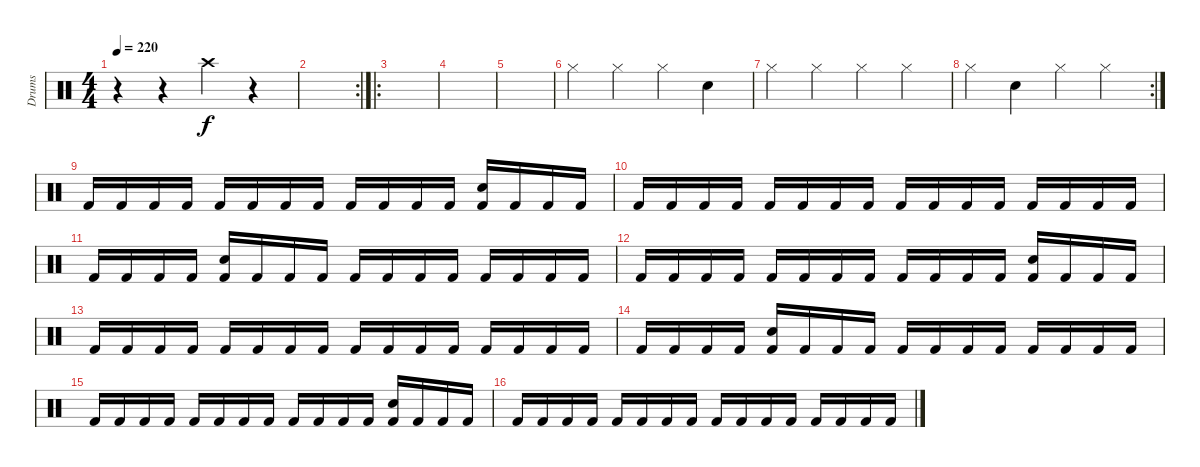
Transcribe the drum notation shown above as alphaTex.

\track ("Drums" "Drums") {instrument percussion}
\staff {score}
\articulation defaults
\ts (4 4)
\tempo 220
\clef neutral
\ks c
r.4{dy f} r.4 "Crash high (hit)".4 r.4 |
\rc 2
|
\ro
|
|
|
"Hi-Hat (closed)".4 "Hi-Hat (closed)".4 "Hi-Hat (closed)".4 "Snare (hit) 2".4 |
"Hi-Hat (closed)".4 "Hi-Hat (closed)".4 "Hi-Hat (closed)".4 "Hi-Hat (closed)".4 |
\rc 2 "Hi-Hat (closed)".4 "Snare (hit) 2".4 "Hi-Hat (closed)".4 "Hi-Hat (closed)".4
|
"Kick (hit) 2".16 "Kick (hit) 2".16 "Kick (hit) 2".16 "Kick (hit) 2".16 "Kick (hit) 2".16 "Kick (hit) 2".16 "Kick (hit) 2".16 "Kick (hit) 2".16 "Kick (hit) 2".16 "Kick (hit) 2".16 "Kick (hit) 2".16 "Kick (hit) 2".16 ("Kick (hit) 2" "Snare (hit) 2").16 "Kick (hit) 2".16 "Kick (hit) 2".16 "Kick (hit) 2".16 |
"Kick (hit) 2".16 "Kick (hit) 2".16 "Kick (hit) 2".16 "Kick (hit) 2".16 "Kick (hit) 2".16 "Kick (hit) 2".16 "Kick (hit) 2".16 "Kick (hit) 2".16 "Kick (hit) 2".16 "Kick (hit) 2".16 "Kick (hit) 2".16 "Kick (hit) 2".16 "Kick (hit) 2".16 "Kick (hit) 2".16 "Kick (hit) 2".16 "Kick (hit) 2".16 |
"Kick (hit) 2".16 "Kick (hit) 2".16 "Kick (hit) 2".16 "Kick (hit) 2".16 ("Kick (hit) 2" "Snare (hit) 2").16 "Kick (hit) 2".16 "Kick (hit) 2".16 "Kick (hit) 2".16 "Kick (hit) 2".16 "Kick (hit) 2".16 "Kick (hit) 2".16 "Kick (hit) 2".16 "Kick (hit) 2".16 "Kick (hit) 2".16 "Kick (hit) 2".16 "Kick (hit) 2".16 |
"Kick (hit) 2".16 "Kick (hit) 2".16 "Kick (hit) 2".16 "Kick (hit) 2".16 "Kick (hit) 2".16 "Kick (hit) 2".16 "Kick (hit) 2".16 "Kick (hit) 2".16 "Kick (hit) 2".16 "Kick (hit) 2".16 "Kick (hit) 2".16 "Kick (hit) 2".16 ("Kick (hit) 2" "Snare (hit) 2").16 "Kick (hit) 2".16 "Kick (hit) 2".16 "Kick (hit) 2".16 |
"Kick (hit) 2".16 "Kick (hit) 2".16 "Kick (hit) 2".16 "Kick (hit) 2".16 "Kick (hit) 2".16 "Kick (hit) 2".16 "Kick (hit) 2".16 "Kick (hit) 2".16 "Kick (hit) 2".16 "Kick (hit) 2".16 "Kick (hit) 2".16 "Kick (hit) 2".16 "Kick (hit) 2".16 "Kick (hit) 2".16 "Kick (hit) 2".16 "Kick (hit) 2".16 |
"Kick (hit) 2".16 "Kick (hit) 2".16 "Kick (hit) 2".16 "Kick (hit) 2".16 ("Kick (hit) 2" "Snare (hit) 2").16 "Kick (hit) 2".16 "Kick (hit) 2".16 "Kick (hit) 2".16 "Kick (hit) 2".16 "Kick (hit) 2".16 "Kick (hit) 2".16 "Kick (hit) 2".16 "Kick (hit) 2".16 "Kick (hit) 2".16 "Kick (hit) 2".16 "Kick (hit) 2".16 |
"Kick (hit) 2".16 "Kick (hit) 2".16 "Kick (hit) 2".16 "Kick (hit) 2".16 "Kick (hit) 2".16 "Kick (hit) 2".16 "Kick (hit) 2".16 "Kick (hit) 2".16 "Kick (hit) 2".16 "Kick (hit) 2".16 "Kick (hit) 2".16 "Kick (hit) 2".16 ("Kick (hit) 2" "Snare (hit) 2").16 "Kick (hit) 2".16 "Kick (hit) 2".16 "Kick (hit) 2".16 |
"Kick (hit) 2".16 "Kick (hit) 2".16 "Kick (hit) 2".16 "Kick (hit) 2".16 "Kick (hit) 2".16 "Kick (hit) 2".16 "Kick (hit) 2".16 "Kick (hit) 2".16 "Kick (hit) 2".16 "Kick (hit) 2".16 "Kick (hit) 2".16 "Kick (hit) 2".16 "Kick (hit) 2".16 "Kick (hit) 2".16 "Kick (hit) 2".16 "Kick (hit) 2".16
